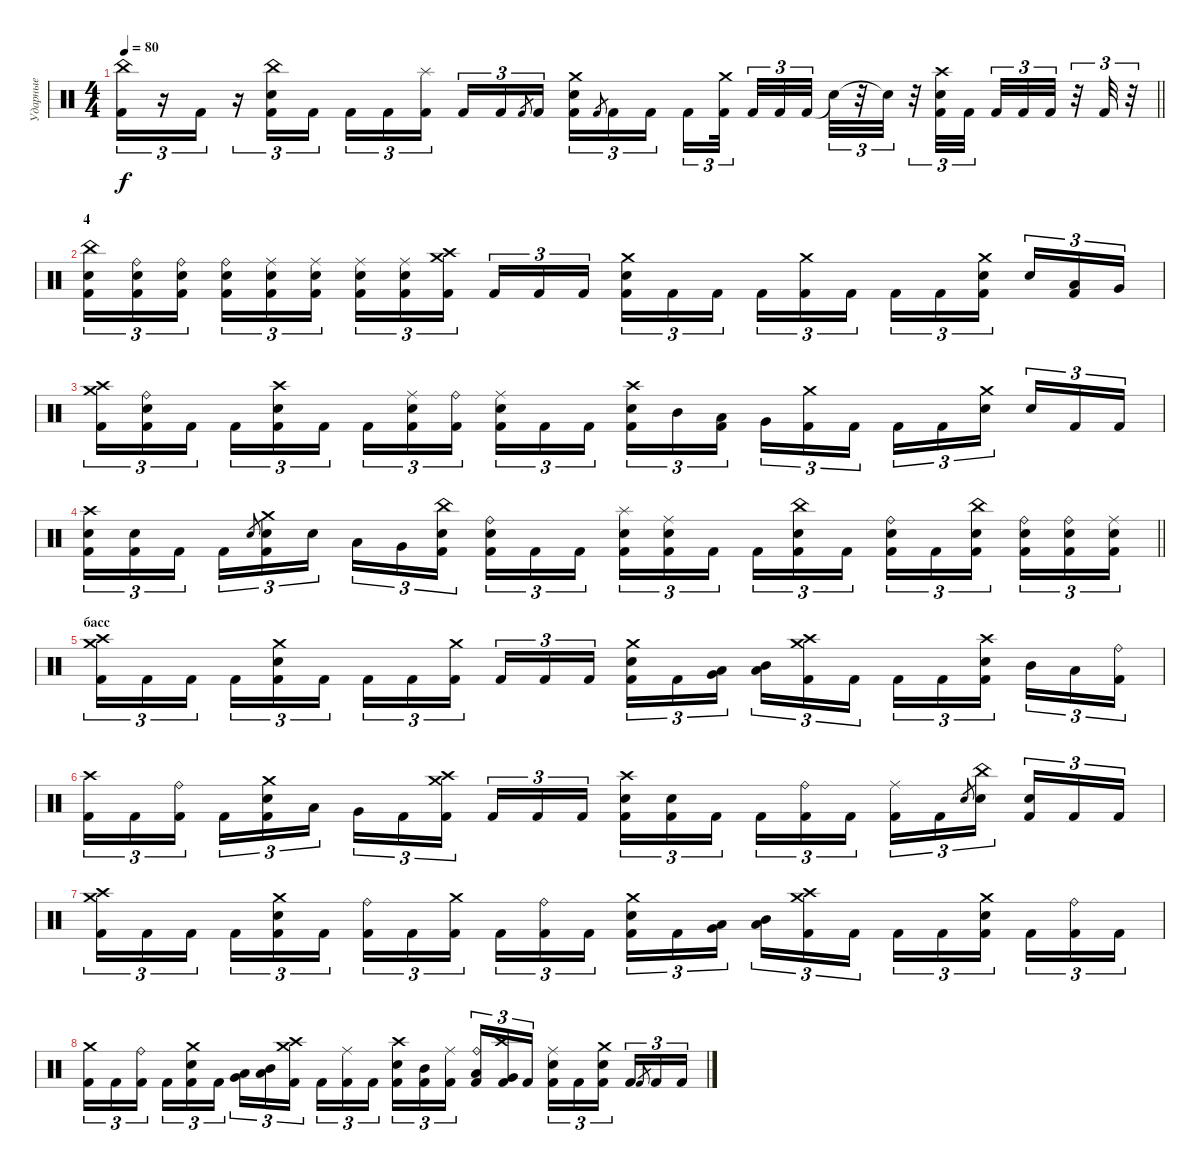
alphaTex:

\track ("Ударные" "Ударные") {instrument percussion}
\staff {score}
\articulation defaults
\ts (4 4)
\tempo 80
\clef neutral
\barLineRight lightlight
\ks c
("China (hit)" "Kick (hit) 2").16{tu (3 2) dy f} r.16{tu (3 2)} "Kick (hit) 2".16{tu (3 2)} r.16{tu (3 2)} ("China (hit)" "Electric Snare (hit)" "Kick (hit) 2").16{tu (3 2)} "Kick (hit) 2".16{tu (3 2)} "Kick (hit) 2".16{tu (3 2)} "Kick (hit) 2".16{tu (3 2)} ("Splash (hit)" "Kick (hit) 2").16{tu (3 2) beam splitsecondary} "Kick (hit) 2".16{tu (3 2)} "Kick (hit) 2".16{tu (3 2)} "Kick (hit) 2".8{gr} "Kick (hit) 2".16{tu (3 2)} ("Crash medium (hit)" "Electric Snare (hit)" "Kick (hit) 2").16{tu (3 2)} "Kick (hit) 2".8{gr} "Kick (hit) 2".16{tu (3 2)} "Kick (hit) 2".16{tu (3 2) beam splitsecondary} "Kick (hit) 2".16{tu (3 2)} ("Crash medium (hit)" "Kick (hit) 2").32{tu (3 2) beam splitsecondary} "Kick (hit) 2".32{tu (3 2)} "Kick (hit) 2".32{tu (3 2)} "Kick (hit) 2".32{tu (3 2)} "Snare (hit)"{t}.32{tu (3 2)} r.32{tu (3 2)} "Snare (hit)"{t}.32{tu (3 2)} r.32{tu (3 2)} ("Crash high (hit)" "Electric Snare (hit)" "Kick (hit) 2").32{tu (3 2)} "Kick (hit) 2".32{tu (3 2) beam splitsecondary} "Kick (hit) 2".32{tu (3 2)} "Kick (hit) 2".32{tu (3 2)} "Kick (hit) 2".32{tu (3 2)} r.32{tu (3 2)} "Kick (hit) 2".32{tu (3 2)} r.32{tu (3 2)} |
\section ("" "4")
("China (hit)" "Electric Snare (hit)" "Kick (hit) 2").16{tu (3 2)} ("Ride (bell)" "Electric Snare (hit)" "Kick (hit) 2").16{tu (3 2)} ("Ride (bell)" "Electric Snare (hit)" "Kick (hit) 2").16{tu (3 2) beam splitsecondary} ("Ride (bell)" "Electric Snare (hit)" "Kick (hit) 2").16{tu (3 2)} ("Ride (middle)" "Electric Snare (hit)" "Kick (hit) 2").16{tu (3 2)} ("Ride (middle)" "Electric Snare (hit)" "Kick (hit) 2").16{tu (3 2)} ("Ride (middle)" "Electric Snare (hit)" "Kick (hit) 2").16{tu (3 2)} ("Ride (middle)" "Electric Snare (hit)" "Kick (hit) 2").16{tu (3 2)} ("Crash medium (hit)" "Crash high (hit)" "Kick (hit) 2").16{tu (3 2) beam splitsecondary} "Kick (hit) 2".16{tu (3 2)} "Kick (hit) 2".16{tu (3 2)} "Kick (hit) 2".16{tu (3 2)} ("Crash medium (hit)" "Electric Snare (hit)" "Kick (hit) 2").16{tu (3 2)} "Kick (hit) 2".16{tu (3 2)} "Kick (hit) 2".16{tu (3 2) beam splitsecondary} "Kick (hit) 2".16{tu (3 2)} ("Crash medium (hit)" "Kick (hit) 2").16{tu (3 2)} "Kick (hit) 2".16{tu (3 2)} "Kick (hit) 2".16{tu (3 2)} "Kick (hit) 2".16{tu (3 2)} ("Crash medium (hit)" "Electric Snare (hit)" "Kick (hit) 2").16{tu (3 2) beam splitsecondary} "Electric Snare (hit)".16{tu (3 2)} ("Low Tom (hit)" "Kick (hit) 2").16{tu (3 2)} "Very Low Tom (hit)".16{tu (3 2)} |
("Crash high (hit)" "Crash medium (hit)" "Kick (hit) 2").16{tu (3 2)} ("Ride (bell)" "Electric Snare (hit)" "Kick (hit) 2").16{tu (3 2)} "Kick (hit) 2".16{tu (3 2) beam splitsecondary} "Kick (hit) 2".16{tu (3 2)} ("Crash high (hit)" "Electric Snare (hit)" "Kick (hit) 2").16{tu (3 2)} "Kick (hit) 2".16{tu (3 2)} "Kick (hit) 2".16{tu (3 2)} ("Ride (middle)" "Electric Snare (hit)" "Kick (hit) 2").16{tu (3 2)} ("Ride (bell)" "Kick (hit) 2").16{tu (3 2) beam splitsecondary} ("Ride (middle)" "Electric Snare (hit)" "Kick (hit) 2").16{tu (3 2)} "Kick (hit) 2".16{tu (3 2)} "Kick (hit) 2".16{tu (3 2)} ("Crash high (hit)" "Electric Snare (hit)" "Kick (hit) 2").16{tu (3 2)} "Mid Tom (hit)".16{tu (3 2)} ("Low Tom (hit)" "Kick (hit) 2").16{tu (3 2) beam splitsecondary} "Very Low Tom (hit)".16{tu (3 2)} ("Crash medium (hit)" "Kick (hit) 2").16{tu (3 2)} "Kick (hit) 2".16{tu (3 2)} "Kick (hit) 2".16{tu (3 2)} "Kick (hit) 2".16{tu (3 2)} ("Crash medium (hit)" "Electric Snare (hit)").16{tu (3 2) beam splitsecondary} "Electric Snare (hit)".16{tu (3 2)} "Kick (hit) 2".16{tu (3 2)} "Kick (hit) 2".16{tu (3 2)} |
\barLineRight lightlight
("Crash high (hit)" "Electric Snare (hit)" "Kick (hit) 2").16{tu (3 2)} ("Electric Snare (hit)" "Kick (hit) 2").16{tu (3 2)} "Kick (hit) 2".16{tu (3 2) beam splitsecondary} "Kick (hit) 2".16{tu (3 2)} "Electric Snare (hit)".8{gr} ("Crash medium (hit)" "Electric Snare (hit)" "Kick (hit) 2").16{tu (3 2)} "Electric Snare (hit)".16{tu (3 2)} "Low Tom (hit)".16{tu (3 2)} "Very Low Tom (hit)".16{tu (3 2)} ("China (hit)" "Electric Snare (hit)" "Kick (hit) 2").16{tu (3 2) beam splitsecondary} ("Ride (bell)" "Electric Snare (hit)" "Kick (hit) 2").16{tu (3 2)} "Kick (hit) 2".16{tu (3 2)} "Kick (hit) 2".16{tu (3 2)} ("Splash (hit)" "Electric Snare (hit)" "Kick (hit) 2").16{tu (3 2)} ("Ride (middle)" "Electric Snare (hit)" "Kick (hit) 2").16{tu (3 2)} "Kick (hit) 2".16{tu (3 2) beam splitsecondary} "Kick (hit) 2".16{tu (3 2)} ("China (hit)" "Electric Snare (hit)" "Kick (hit) 2").16{tu (3 2)} "Kick (hit) 2".16{tu (3 2)} ("Ride (bell)" "Electric Snare (hit)" "Kick (hit) 2").16{tu (3 2)} "Kick (hit) 2".16{tu (3 2)} ("China (hit)" "Electric Snare (hit)" "Kick (hit) 2").16{tu (3 2) beam splitsecondary} ("Ride (bell)" "Electric Snare (hit)" "Kick (hit) 2").16{tu (3 2)} ("Ride (bell)" "Electric Snare (hit)" "Kick (hit) 2").16{tu (3 2)} ("Ride (middle)" "Electric Snare (hit)" "Kick (hit) 2").16{tu (3 2)} |
\section ("" "басс")
("Crash medium (hit)" "Crash high (hit)" "Kick (hit) 2").16{tu (3 2)} "Kick (hit) 2".16{tu (3 2)} "Kick (hit) 2".16{tu (3 2) beam splitsecondary} "Kick (hit) 2".16{tu (3 2)} ("Crash medium (hit)" "Electric Snare (hit)" "Kick (hit) 2").16{tu (3 2)} "Kick (hit) 2".16{tu (3 2)} "Kick (hit) 2".16{tu (3 2)} "Kick (hit) 2".16{tu (3 2)} ("Crash medium (hit)" "Kick (hit) 2").16{tu (3 2) beam splitsecondary} "Kick (hit) 2".16{tu (3 2)} "Kick (hit) 2".16{tu (3 2)} "Kick (hit) 2".16{tu (3 2)} ("Crash medium (hit)" "Electric Snare (hit)" "Kick (hit) 2").16{tu (3 2)} "Kick (hit) 2".16{tu (3 2)} ("Very Low Tom (hit)" "Low Tom (hit)").16{tu (3 2) beam splitsecondary} ("Mid Tom (hit)" "Low Tom (hit)").16{tu (3 2)} ("Crash high (hit)" "Crash medium (hit)" "Kick (hit) 2").16{tu (3 2)} "Kick (hit) 2".16{tu (3 2)} "Kick (hit) 2".16{tu (3 2)} "Kick (hit) 2".16{tu (3 2)} ("Crash high (hit)" "Electric Snare (hit)" "Kick (hit) 2").16{tu (3 2) beam splitsecondary} "Mid Tom (hit)".16{tu (3 2)} "Low Tom (hit)".16{tu (3 2)} ("Ride (bell)" "Kick (hit) 2").16{tu (3 2)} |
("Crash high (hit)" "Kick (hit) 2").16{tu (3 2)} "Kick (hit) 2".16{tu (3 2)} ("Ride (bell)" "Kick (hit) 2").16{tu (3 2) beam splitsecondary} "Kick (hit) 2".16{tu (3 2)} ("Crash medium (hit)" "Electric Snare (hit)" "Kick (hit) 2").16{tu (3 2)} "Low Tom (hit)".16{tu (3 2)} "Very Low Tom (hit)".16{tu (3 2)} "Kick (hit) 2".16{tu (3 2)} ("Crash medium (hit)" "Crash high (hit)" "Kick (hit) 2").16{tu (3 2) beam splitsecondary} "Kick (hit) 2".16{tu (3 2)} "Kick (hit) 2".16{tu (3 2)} "Kick (hit) 2".16{tu (3 2)} ("Crash high (hit)" "Electric Snare (hit)" "Kick (hit) 2").16{tu (3 2)} ("Electric Snare (hit)" "Kick (hit) 2").16{tu (3 2)} "Kick (hit) 2".16{tu (3 2) beam splitsecondary} "Kick (hit) 2".16{tu (3 2)} ("Ride (bell)" "Kick (hit) 2").16{tu (3 2)} "Kick (hit) 2".16{tu (3 2)} ("Ride (middle)" "Kick (hit) 2").16{tu (3 2)} "Kick (hit) 2".16{tu (3 2)} "Electric Snare (hit)".8{gr} ("China (hit)" "Electric Snare (hit)").16{tu (3 2) beam splitsecondary} ("Electric Snare (hit)" "Kick (hit) 2").16{tu (3 2)} "Kick (hit) 2".16{tu (3 2)} "Kick (hit) 2".16{tu (3 2)} |
("Crash medium (hit)" "Crash high (hit)" "Kick (hit) 2").16{tu (3 2)} "Kick (hit) 2".16{tu (3 2)} "Kick (hit) 2".16{tu (3 2) beam splitsecondary} "Kick (hit) 2".16{tu (3 2)} ("Crash medium (hit)" "Electric Snare (hit)" "Kick (hit) 2").16{tu (3 2)} "Kick (hit) 2".16{tu (3 2)} ("Ride (bell)" "Kick (hit) 2").16{tu (3 2)} "Kick (hit) 2".16{tu (3 2)} ("Crash medium (hit)" "Kick (hit) 2").16{tu (3 2) beam splitsecondary} "Kick (hit) 2".16{tu (3 2)} ("Ride (bell)" "Kick (hit) 2").16{tu (3 2)} "Kick (hit) 2".16{tu (3 2)} ("Crash medium (hit)" "Electric Snare (hit)" "Kick (hit) 2").16{tu (3 2)} "Kick (hit) 2".16{tu (3 2)} ("Very Low Tom (hit)" "Low Tom (hit)").16{tu (3 2) beam splitsecondary} ("Mid Tom (hit)" "Low Tom (hit)").16{tu (3 2)} ("Crash medium (hit)" "Crash high (hit)" "Kick (hit) 2").16{tu (3 2)} "Kick (hit) 2".16{tu (3 2)} "Kick (hit) 2".16{tu (3 2)} "Kick (hit) 2".16{tu (3 2)} ("Crash medium (hit)" "Electric Snare (hit)" "Kick (hit) 2").16{tu (3 2) beam splitsecondary} "Kick (hit) 2".16{tu (3 2)} ("Ride (bell)" "Kick (hit) 2").16{tu (3 2)} "Kick (hit) 2".16{tu (3 2)} |
("Crash medium (hit)" "Kick (hit) 2").16{tu (3 2)} "Kick (hit) 2".16{tu (3 2)} ("Ride (bell)" "Kick (hit) 2").16{tu (3 2) beam splitsecondary} "Kick (hit) 2".16{tu (3 2)} ("Crash medium (hit)" "Electric Snare (hit)" "Kick (hit) 2").16{tu (3 2)} "Kick (hit) 2".16{tu (3 2)} ("Very Low Tom (hit)" "Low Tom (hit)").16{tu (3 2)} ("Mid Tom (hit)" "Low Tom (hit)").16{tu (3 2)} ("Crash high (hit)" "Crash medium (hit)" "Kick (hit) 2").16{tu (3 2) beam splitsecondary} "Kick (hit) 2".16{tu (3 2)} ("Ride (middle)" "Kick (hit) 2").16{tu (3 2)} "Kick (hit) 2".16{tu (3 2)} ("Crash high (hit)" "Electric Snare (hit)" "Kick (hit) 2").16{tu (3 2)} ("Mid Tom (hit)" "Kick (hit) 2").16{tu (3 2)} ("Ride (middle)" "Kick (hit) 2").16{tu (3 2) beam splitsecondary} ("Ride (bell)" "Low Tom (hit)" "Kick (hit) 2").16{tu (3 2)} ("Crash high (hit)" "Very Low Tom (hit)" "Kick (hit) 2").16{tu (3 2)} "Kick (hit) 2".16{tu (3 2)} ("Ride (middle)" "Electric Snare (hit)" "Kick (hit) 2").16{tu (3 2)} "Kick (hit) 2".16{tu (3 2)} ("Crash medium (hit)" "Electric Snare (hit)" "Kick (hit) 2").16{tu (3 2) beam splitsecondary} "Kick (hit) 2".16{tu (3 2)} "Kick (hit) 2".8{gr} "Kick (hit) 2".16{tu (3 2)} "Kick (hit) 2".16{tu (3 2)}
